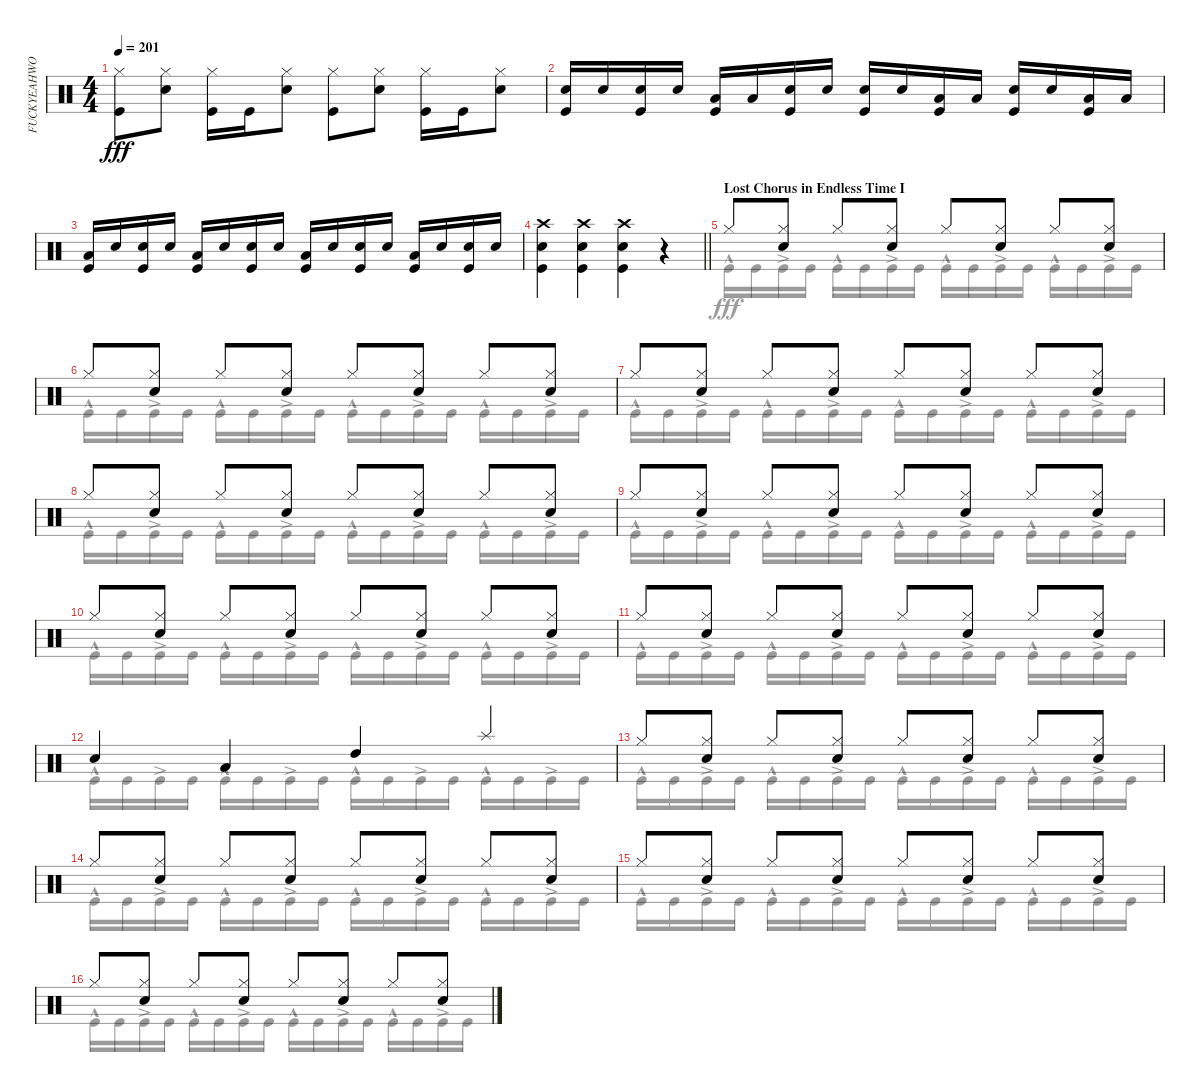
\track ("FUCKYEAHWOOTDAVEMACKINTOSH(Percussion)" "FUCKYEAHWO") {instrument percussion}
\staff {score}
\articulation defaults
\voice
\ts (4 4)
\tempo 201
\clef neutral
\ks c
("Kick (hit)" "Hi-Hat (closed)").8{dy fff} ("Snare (hit) 2" "Hi-Hat (closed)").8 ("Kick (hit)" "Hi-Hat (closed)").16 "Kick (hit)".16 ("Snare (hit) 2" "Hi-Hat (closed)").8 ("Kick (hit)" "Hi-Hat (closed)").8 ("Snare (hit) 2" "Hi-Hat (closed)").8 ("Kick (hit)" "Hi-Hat (closed)").16 "Kick (hit)".16 ("Snare (hit) 2" "Hi-Hat (closed)").8 |
("Snare (hit) 2" "Kick (hit)").16 "Snare (hit) 2".16 ("Snare (hit) 2" "Kick (hit)").16 "Snare (hit) 2".16 ("Low Tom (hit)" "Kick (hit)").16 "Low Tom (hit)".16 ("Snare (hit) 2" "Kick (hit)").16 "Snare (hit) 2".16 ("Snare (hit) 2" "Kick (hit)").16 "Snare (hit) 2".16 ("Low Tom (hit)" "Kick (hit)").16 "Low Tom (hit)".16 ("Snare (hit) 2" "Kick (hit)").16 "Snare (hit) 2".16 ("Low Tom (hit)" "Kick (hit)").16 "Low Tom (hit)".16 |
("Low Floor Tom (hit)" "Kick (hit)").16 "Snare (hit) 2".16 ("Snare (hit) 2" "Kick (hit)").16 "Snare (hit) 2".16 ("Kick (hit)" "Low Floor Tom (hit)").16 "Snare (hit) 2".16 ("Snare (hit) 2" "Kick (hit)").16 "Snare (hit) 2".16 ("Low Floor Tom (hit)" "Kick (hit)").16 "Snare (hit) 2".16 ("Snare (hit) 2" "Kick (hit)").16 "Snare (hit) 2".16 ("Low Floor Tom (hit)" "Kick (hit)").16 "Snare (hit) 2".16 ("Snare (hit) 2" "Kick (hit)").16 "Snare (hit) 2".16 |
\barLineRight lightlight
("Kick (hit)" "Snare (hit) 2" "Crash high (hit)").4 ("Snare (hit) 2" "Kick (hit)" "Crash high (hit)").4 ("Snare (hit) 2" "Kick (hit)" "Crash high (hit)").4 r.4 |
\section ("" "Lost Chorus in Endless Time I")
"Hi-Hat (closed)".8 ("Hi-Hat (closed)" "Snare (hit) 2").8 "Hi-Hat (closed)".8 ("Snare (hit) 2" "Hi-Hat (closed)").8 "Hi-Hat (closed)".8 ("Hi-Hat (closed)" "Snare (hit) 2").8 "Hi-Hat (closed)".8 ("Hi-Hat (closed)" "Snare (hit) 2").8 |
"Hi-Hat (closed)".8 ("Hi-Hat (closed)" "Snare (hit) 2").8 "Hi-Hat (closed)".8 ("Snare (hit) 2" "Hi-Hat (closed)").8 "Hi-Hat (closed)".8 ("Hi-Hat (closed)" "Snare (hit) 2").8 "Hi-Hat (closed)".8 ("Hi-Hat (closed)" "Snare (hit) 2").8 |
"Hi-Hat (closed)".8 ("Hi-Hat (closed)" "Snare (hit) 2").8 "Hi-Hat (closed)".8 ("Snare (hit) 2" "Hi-Hat (closed)").8 "Hi-Hat (closed)".8 ("Hi-Hat (closed)" "Snare (hit) 2").8 "Hi-Hat (closed)".8 ("Hi-Hat (closed)" "Snare (hit) 2").8 |
"Hi-Hat (closed)".8 ("Hi-Hat (closed)" "Snare (hit) 2").8 "Hi-Hat (closed)".8 ("Snare (hit) 2" "Hi-Hat (closed)").8 "Hi-Hat (closed)".8 ("Hi-Hat (closed)" "Snare (hit) 2").8 "Hi-Hat (closed)".8 ("Hi-Hat (closed)" "Snare (hit) 2").8 |
"Hi-Hat (closed)".8 ("Hi-Hat (closed)" "Snare (hit) 2").8 "Hi-Hat (closed)".8 ("Snare (hit) 2" "Hi-Hat (closed)").8 "Hi-Hat (closed)".8 ("Hi-Hat (closed)" "Snare (hit) 2").8 "Hi-Hat (closed)".8 ("Hi-Hat (closed)" "Snare (hit) 2").8 |
"Hi-Hat (closed)".8 ("Hi-Hat (closed)" "Snare (hit) 2").8 "Hi-Hat (closed)".8 ("Snare (hit) 2" "Hi-Hat (closed)").8 "Hi-Hat (closed)".8 ("Hi-Hat (closed)" "Snare (hit) 2").8 "Hi-Hat (closed)".8 ("Hi-Hat (closed)" "Snare (hit) 2").8 |
"Hi-Hat (closed)".8 ("Hi-Hat (closed)" "Snare (hit) 2").8 "Hi-Hat (closed)".8 ("Snare (hit) 2" "Hi-Hat (closed)").8 "Hi-Hat (closed)".8 ("Hi-Hat (closed)" "Snare (hit) 2").8 "Hi-Hat (closed)".8 ("Hi-Hat (closed)" "Snare (hit) 2").8 |
"Snare (hit) 2".4 "Low Tom (hit)".4 "High Tom (hit)".4 "Splash (hit)".4 |
"Hi-Hat (closed)".8 ("Hi-Hat (closed)" "Snare (hit) 2").8 "Hi-Hat (closed)".8 ("Snare (hit) 2" "Hi-Hat (closed)").8 "Hi-Hat (closed)".8 ("Hi-Hat (closed)" "Snare (hit) 2").8 "Hi-Hat (closed)".8 ("Hi-Hat (closed)" "Snare (hit) 2").8 |
"Hi-Hat (closed)".8 ("Hi-Hat (closed)" "Snare (hit) 2").8 "Hi-Hat (closed)".8 ("Snare (hit) 2" "Hi-Hat (closed)").8 "Hi-Hat (closed)".8 ("Hi-Hat (closed)" "Snare (hit) 2").8 "Hi-Hat (closed)".8 ("Hi-Hat (closed)" "Snare (hit) 2").8 |
"Hi-Hat (closed)".8 ("Hi-Hat (closed)" "Snare (hit) 2").8 "Hi-Hat (closed)".8 ("Snare (hit) 2" "Hi-Hat (closed)").8 "Hi-Hat (closed)".8 ("Hi-Hat (closed)" "Snare (hit) 2").8 "Hi-Hat (closed)".8 ("Hi-Hat (closed)" "Snare (hit) 2").8 |
"Hi-Hat (closed)".8 ("Hi-Hat (closed)" "Snare (hit) 2").8 "Hi-Hat (closed)".8 ("Snare (hit) 2" "Hi-Hat (closed)").8 "Hi-Hat (closed)".8 ("Hi-Hat (closed)" "Snare (hit) 2").8 "Hi-Hat (closed)".8 ("Hi-Hat (closed)" "Snare (hit) 2").8
\voice
\clef neutral
\ottava regular
\simile none
\ks c
|
|
|
\barLineRight lightlight
|
"Kick (hit)"{hac}.16 "Kick (hit)".16 "Kick (hit)"{ac}.16 "Kick (hit)".16 "Kick (hit)"{hac}.16 "Kick (hit)".16 "Kick (hit)"{ac}.16 "Kick (hit)".16 "Kick (hit)"{hac}.16 "Kick (hit)".16 "Kick (hit)"{ac}.16 "Kick (hit)".16 "Kick (hit)"{hac}.16 "Kick (hit)".16 "Kick (hit)"{ac}.16 "Kick (hit)".16 |
"Kick (hit)"{hac}.16 "Kick (hit)".16 "Kick (hit)"{ac}.16 "Kick (hit)".16 "Kick (hit)"{hac}.16 "Kick (hit)".16 "Kick (hit)"{ac}.16 "Kick (hit)".16 "Kick (hit)"{hac}.16 "Kick (hit)".16 "Kick (hit)"{ac}.16 "Kick (hit)".16 "Kick (hit)"{hac}.16 "Kick (hit)".16 "Kick (hit)"{ac}.16 "Kick (hit)".16 |
"Kick (hit)"{hac}.16 "Kick (hit)".16 "Kick (hit)"{ac}.16 "Kick (hit)".16 "Kick (hit)"{hac}.16 "Kick (hit)".16 "Kick (hit)"{ac}.16 "Kick (hit)".16 "Kick (hit)"{hac}.16 "Kick (hit)".16 "Kick (hit)"{ac}.16 "Kick (hit)".16 "Kick (hit)"{hac}.16 "Kick (hit)".16 "Kick (hit)"{ac}.16 "Kick (hit)".16 |
"Kick (hit)"{hac}.16 "Kick (hit)".16 "Kick (hit)"{ac}.16 "Kick (hit)".16 "Kick (hit)"{hac}.16 "Kick (hit)".16 "Kick (hit)"{ac}.16 "Kick (hit)".16 "Kick (hit)"{hac}.16 "Kick (hit)".16 "Kick (hit)"{ac}.16 "Kick (hit)".16 "Kick (hit)"{hac}.16 "Kick (hit)".16 "Kick (hit)"{ac}.16 "Kick (hit)".16 |
"Kick (hit)"{hac}.16 "Kick (hit)".16 "Kick (hit)"{ac}.16 "Kick (hit)".16 "Kick (hit)"{hac}.16 "Kick (hit)".16 "Kick (hit)"{ac}.16 "Kick (hit)".16 "Kick (hit)"{hac}.16 "Kick (hit)".16 "Kick (hit)"{ac}.16 "Kick (hit)".16 "Kick (hit)"{hac}.16 "Kick (hit)".16 "Kick (hit)"{ac}.16 "Kick (hit)".16 |
"Kick (hit)"{hac}.16 "Kick (hit)".16 "Kick (hit)"{ac}.16 "Kick (hit)".16 "Kick (hit)"{hac}.16 "Kick (hit)".16 "Kick (hit)"{ac}.16 "Kick (hit)".16 "Kick (hit)"{hac}.16 "Kick (hit)".16 "Kick (hit)"{ac}.16 "Kick (hit)".16 "Kick (hit)"{hac}.16 "Kick (hit)".16 "Kick (hit)"{ac}.16 "Kick (hit)".16 |
"Kick (hit)"{hac}.16 "Kick (hit)".16 "Kick (hit)"{ac}.16 "Kick (hit)".16 "Kick (hit)"{hac}.16 "Kick (hit)".16 "Kick (hit)"{ac}.16 "Kick (hit)".16 "Kick (hit)"{hac}.16 "Kick (hit)".16 "Kick (hit)"{ac}.16 "Kick (hit)".16 "Kick (hit)"{hac}.16 "Kick (hit)".16 "Kick (hit)"{ac}.16 "Kick (hit)".16 |
"Kick (hit)"{hac}.16 "Kick (hit)".16 "Kick (hit)"{ac}.16 "Kick (hit)".16 "Kick (hit)"{hac}.16 "Kick (hit)".16 "Kick (hit)"{ac}.16 "Kick (hit)".16 "Kick (hit)"{hac}.16 "Kick (hit)".16 "Kick (hit)"{ac}.16 "Kick (hit)".16 "Kick (hit)"{hac}.16 "Kick (hit)".16 "Kick (hit)"{ac}.16 "Kick (hit)".16 |
"Kick (hit)"{hac}.16 "Kick (hit)".16 "Kick (hit)"{ac}.16 "Kick (hit)".16 "Kick (hit)"{hac}.16 "Kick (hit)".16 "Kick (hit)"{ac}.16 "Kick (hit)".16 "Kick (hit)"{hac}.16 "Kick (hit)".16 "Kick (hit)"{ac}.16 "Kick (hit)".16 "Kick (hit)"{hac}.16 "Kick (hit)".16 "Kick (hit)"{ac}.16 "Kick (hit)".16 |
"Kick (hit)"{hac}.16 "Kick (hit)".16 "Kick (hit)"{ac}.16 "Kick (hit)".16 "Kick (hit)"{hac}.16 "Kick (hit)".16 "Kick (hit)"{ac}.16 "Kick (hit)".16 "Kick (hit)"{hac}.16 "Kick (hit)".16 "Kick (hit)"{ac}.16 "Kick (hit)".16 "Kick (hit)"{hac}.16 "Kick (hit)".16 "Kick (hit)"{ac}.16 "Kick (hit)".16 |
"Kick (hit)"{hac}.16 "Kick (hit)".16 "Kick (hit)"{ac}.16 "Kick (hit)".16 "Kick (hit)"{hac}.16 "Kick (hit)".16 "Kick (hit)"{ac}.16 "Kick (hit)".16 "Kick (hit)"{hac}.16 "Kick (hit)".16 "Kick (hit)"{ac}.16 "Kick (hit)".16 "Kick (hit)"{hac}.16 "Kick (hit)".16 "Kick (hit)"{ac}.16 "Kick (hit)".16 |
"Kick (hit)"{hac}.16 "Kick (hit)".16 "Kick (hit)"{ac}.16 "Kick (hit)".16 "Kick (hit)"{hac}.16 "Kick (hit)".16 "Kick (hit)"{ac}.16 "Kick (hit)".16 "Kick (hit)"{hac}.16 "Kick (hit)".16 "Kick (hit)"{ac}.16 "Kick (hit)".16 "Kick (hit)"{hac}.16 "Kick (hit)".16 "Kick (hit)"{ac}.16 "Kick (hit)".16
